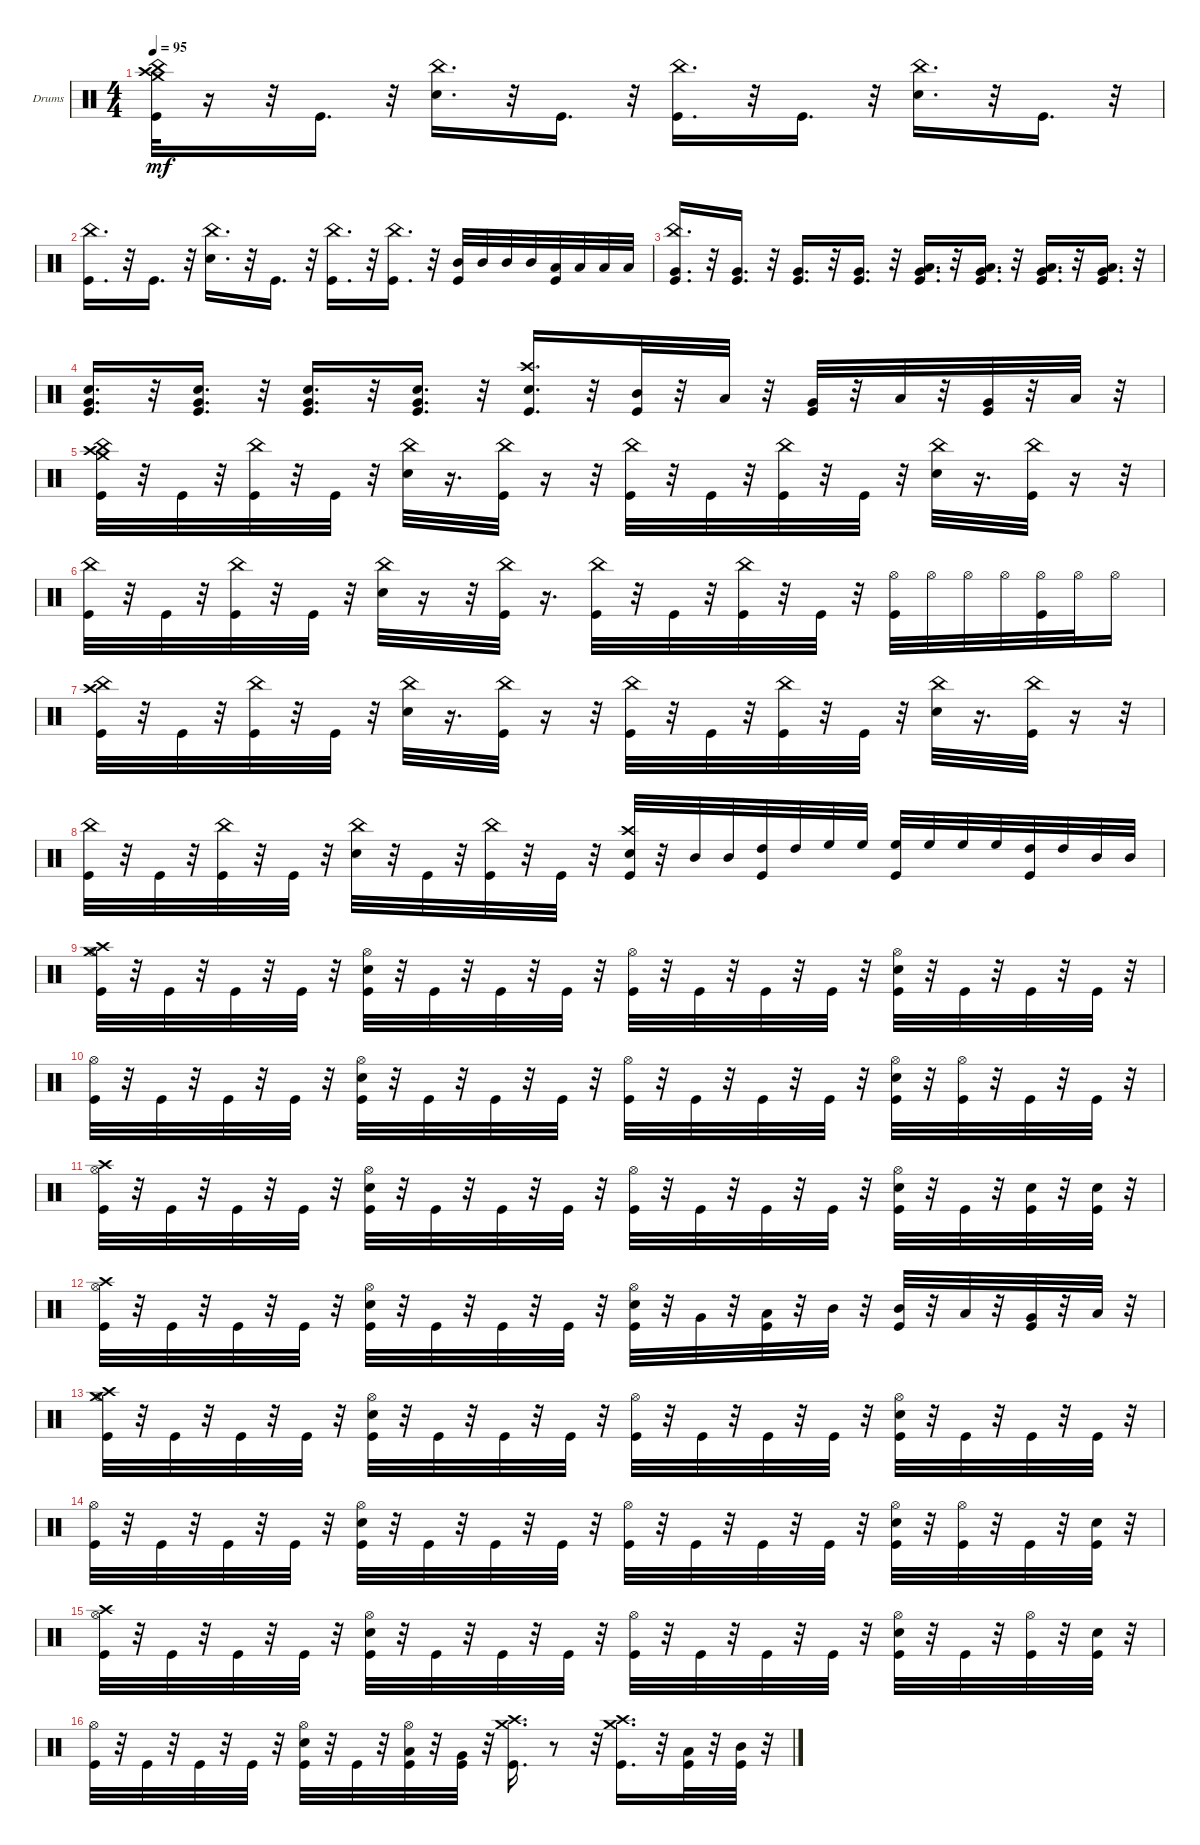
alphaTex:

\bracketExtendMode groupsimilarinstruments
\firstSystemTrackNameOrientation horizontal
\otherSystemsTrackNameOrientation horizontal
\track ("Drums" "Drums") {instrument percussion}
\staff {score}
\articulation defaults
\ts (4 4)
\tempo 95
\clef neutral
\ks c
("Kick (hit)" "Crash medium (hit)" "Crash high (hit)" "China (hit)").32{dy mf} r.16 r.32 "Kick (hit)".16{d} r.32 ("Snare (hit) 2" "China (hit)").16{d} r.32 "Kick (hit)".16{d} r.32 ("Kick (hit)" "China (hit)").16{d} r.32 "Kick (hit)".16{d} r.32 ("Snare (hit) 2" "China (hit)").16{d} r.32 "Kick (hit)".16{d} r.32 |
("Kick (hit)" "China (hit)").16{d} r.32 "Kick (hit)".16{d} r.32 ("Snare (hit) 2" "China (hit)").16{d} r.32 "Kick (hit)".16{d} r.32 ("Kick (hit)" "China (hit)").16{d} r.32 ("Kick (hit)" "China (hit)").16{d} r.32 ("Kick (hit)" "Mid Tom (hit)").32 "Mid Tom (hit)".32 "Mid Tom (hit)".32 "Mid Tom (hit)".32 ("Kick (hit)" "Low Tom (hit)").32 "Low Tom (hit)".32 "Low Tom (hit)".32 "Low Tom (hit)".32 |
("Kick (hit)" "China (hit)" "Very Low Tom (hit)").16{d} r.32 ("Kick (hit)" "Very Low Tom (hit)").16{d} r.32 ("Kick (hit)" "Very Low Tom (hit)").16{d} r.32 ("Kick (hit)" "Very Low Tom (hit)").16{d} r.32 ("Kick (hit)" "Low Tom (hit)" "Very Low Tom (hit)").16{d} r.32 ("Kick (hit)" "Low Tom (hit)" "Very Low Tom (hit)").16{d} r.32 ("Kick (hit)" "Low Tom (hit)" "Very Low Tom (hit)").16{d} r.32 ("Kick (hit)" "Low Tom (hit)" "Very Low Tom (hit)").16{d} r.32 |
("Kick (hit)" "Snare (hit) 2" "Very Low Tom (hit)").16{d} r.32 ("Kick (hit)" "Snare (hit) 2" "Very Low Tom (hit)").16{d} r.32 ("Kick (hit)" "Snare (hit) 2" "Very Low Tom (hit)").16{d} r.32 ("Kick (hit)" "Snare (hit) 2" "Very Low Tom (hit)").16{d} r.32 ("Kick (hit)" "Snare (hit) 2" "Crash high (hit)").16{d} r.32 ("Kick (hit)" "Mid Tom (hit)").32 r.32 "Low Tom (hit)".32 r.32 ("Kick (hit)" "Very Low Tom (hit)").32 r.32 "Low Tom (hit)".32 r.32 ("Kick (hit)" "Very Low Tom (hit)").32 r.32 "Low Tom (hit)".32 r.32 |
("Crash medium (hit)" "China (hit)" "Crash high (hit)" "Kick (hit)").32 r.32 "Kick (hit)".32 r.32 ("Kick (hit)" "China (hit)").32 r.32 "Kick (hit)".32 r.32 ("China (hit)" "Snare (hit) 2").32 r.16{d} ("Kick (hit)" "China (hit)").32 r.16 r.32 ("Kick (hit)" "China (hit)").32 r.32 "Kick (hit)".32 r.32 ("Kick (hit)" "China (hit)").32 r.32 "Kick (hit)".32 r.32 ("China (hit)" "Snare (hit) 2").32 r.16{d} ("Kick (hit)" "China (hit)").32 r.16 r.32 |
("Kick (hit)" "China (hit)").32 r.32 "Kick (hit)".32 r.32 ("Kick (hit)" "China (hit)").32 r.32 "Kick (hit)".32 r.32 ("Snare (hit) 2" "China (hit)").32 r.16 r.32 ("Kick (hit)" "China (hit)").32 r.16{d} ("Kick (hit)" "China (hit)").32 r.32 "Kick (hit)".32 r.32 ("Kick (hit)" "China (hit)").32 r.32 "Kick (hit)".32 r.32 ("Kick (hit)" "Hi-Hat (open)").32 "Hi-Hat (open)".32 "Hi-Hat (open)".32 "Hi-Hat (open)".32 ("Kick (hit)" "Hi-Hat (open)").32 "Hi-Hat (open)".32 "Hi-Hat (open)".16 |
("Kick (hit)" "Crash high (hit)" "China (hit)").32 r.32 "Kick (hit)".32 r.32 ("Kick (hit)" "China (hit)").32 r.32 "Kick (hit)".32 r.32 ("China (hit)" "Snare (hit) 2").32 r.16{d} ("Kick (hit)" "China (hit)").32 r.16 r.32 ("Kick (hit)" "China (hit)").32 r.32 "Kick (hit)".32 r.32 ("Kick (hit)" "China (hit)").32 r.32 "Kick (hit)".32 r.32 ("China (hit)" "Snare (hit) 2").32 r.16{d} ("Kick (hit)" "China (hit)").32 r.16 r.32 |
("Kick (hit)" "China (hit)").32 r.32 "Kick (hit)".32 r.32 ("Kick (hit)" "China (hit)").32 r.32 "Kick (hit)".32 r.32 ("Snare (hit) 2" "China (hit)").32 r.32 "Kick (hit)".32 r.32 ("Kick (hit)" "China (hit)").32 r.32 "Kick (hit)".32 r.32 ("Kick (hit)" "Snare (hit) 2" "Crash high (hit)").32 r.32 "Mid Tom (hit)".32 "Mid Tom (hit)".32 ("Kick (hit)" "High Tom (hit)").32 "High Tom (hit)".32 "High Floor Tom (hit)".32 "High Floor Tom (hit)".32 ("Kick (hit)" "High Floor Tom (hit)").32 "High Floor Tom (hit)".32 "High Floor Tom (hit)".32 "High Floor Tom (hit)".32 ("Kick (hit)" "High Tom (hit)").32 "High Tom (hit)".32 "Mid Tom (hit)".32 "Mid Tom (hit)".32 |
("Kick (hit)" "Hi-Hat (open)" "Crash medium (hit)" "Crash high (hit)").32 r.32 "Kick (hit)".32 r.32 "Kick (hit)".32 r.32 "Kick (hit)".32 r.32 ("Kick (hit)" "Snare (hit) 2" "Hi-Hat (open)").32 r.32 "Kick (hit)".32 r.32 "Kick (hit)".32 r.32 "Kick (hit)".32 r.32 ("Kick (hit)" "Hi-Hat (open)").32 r.32 "Kick (hit)".32 r.32 "Kick (hit)".32 r.32 "Kick (hit)".32 r.32 ("Kick (hit)" "Snare (hit) 2" "Hi-Hat (open)").32 r.32 "Kick (hit)".32 r.32 "Kick (hit)".32 r.32 "Kick (hit)".32 r.32 |
("Kick (hit)" "Hi-Hat (open)").32 r.32 "Kick (hit)".32 r.32 "Kick (hit)".32 r.32 "Kick (hit)".32 r.32 ("Kick (hit)" "Snare (hit) 2" "Hi-Hat (open)").32 r.32 "Kick (hit)".32 r.32 "Kick (hit)".32 r.32 "Kick (hit)".32 r.32 ("Kick (hit)" "Hi-Hat (open)").32 r.32 "Kick (hit)".32 r.32 "Kick (hit)".32 r.32 "Kick (hit)".32 r.32 ("Kick (hit)" "Snare (hit) 2" "Hi-Hat (open)").32 r.32 ("Kick (hit)" "Hi-Hat (open)").32 r.32 "Kick (hit)".32 r.32 "Kick (hit)".32 r.32 |
("Kick (hit)" "Hi-Hat (open)" "Crash high (hit)").32 r.32 "Kick (hit)".32 r.32 "Kick (hit)".32 r.32 "Kick (hit)".32 r.32 ("Kick (hit)" "Snare (hit) 2" "Hi-Hat (open)").32 r.32 "Kick (hit)".32 r.32 "Kick (hit)".32 r.32 "Kick (hit)".32 r.32 ("Kick (hit)" "Hi-Hat (open)").32 r.32 "Kick (hit)".32 r.32 "Kick (hit)".32 r.32 "Kick (hit)".32 r.32 ("Kick (hit)" "Snare (hit) 2" "Hi-Hat (open)").32 r.32 "Kick (hit)".32 r.32 ("Kick (hit)" "Snare (hit) 2").32 r.32 ("Kick (hit)" "Snare (hit) 2").32 r.32 |
("Kick (hit)" "Hi-Hat (open)" "Crash high (hit)").32 r.32 "Kick (hit)".32 r.32 "Kick (hit)".32 r.32 "Kick (hit)".32 r.32 ("Kick (hit)" "Snare (hit) 2" "Hi-Hat (open)").32 r.32 "Kick (hit)".32 r.32 "Kick (hit)".32 r.32 "Kick (hit)".32 r.32 ("Kick (hit)" "Snare (hit) 2" "Hi-Hat (open)").32 r.32 "Very Low Tom (hit)".32 r.32 ("Kick (hit)" "Low Tom (hit)").32 r.32 "Mid Tom (hit)".32 r.32 ("Kick (hit)" "Mid Tom (hit)").32 r.32 "Low Tom (hit)".32 r.32 ("Kick (hit)" "Very Low Tom (hit)").32 r.32 "Low Tom (hit)".32 r.32 |
("Crash medium (hit)" "Crash high (hit)" "Hi-Hat (open)" "Kick (hit)").32 r.32 "Kick (hit)".32 r.32 "Kick (hit)".32 r.32 "Kick (hit)".32 r.32 ("Kick (hit)" "Snare (hit) 2" "Hi-Hat (open)").32 r.32 "Kick (hit)".32 r.32 "Kick (hit)".32 r.32 "Kick (hit)".32 r.32 ("Kick (hit)" "Hi-Hat (open)").32 r.32 "Kick (hit)".32 r.32 "Kick (hit)".32 r.32 "Kick (hit)".32 r.32 ("Kick (hit)" "Snare (hit) 2" "Hi-Hat (open)").32 r.32 "Kick (hit)".32 r.32 "Kick (hit)".32 r.32 "Kick (hit)".32 r.32 |
("Kick (hit)" "Hi-Hat (open)").32 r.32 "Kick (hit)".32 r.32 "Kick (hit)".32 r.32 "Kick (hit)".32 r.32 ("Kick (hit)" "Snare (hit) 2" "Hi-Hat (open)").32 r.32 "Kick (hit)".32 r.32 "Kick (hit)".32 r.32 "Kick (hit)".32 r.32 ("Kick (hit)" "Hi-Hat (open)").32 r.32 "Kick (hit)".32 r.32 "Kick (hit)".32 r.32 "Kick (hit)".32 r.32 ("Kick (hit)" "Snare (hit) 2" "Hi-Hat (open)").32 r.32 ("Kick (hit)" "Hi-Hat (open)").32 r.32 "Kick (hit)".32 r.32 ("Kick (hit)" "Snare (hit) 2").32 r.32 |
("Kick (hit)" "Hi-Hat (open)" "Crash high (hit)").32 r.32 "Kick (hit)".32 r.32 "Kick (hit)".32 r.32 "Kick (hit)".32 r.32 ("Kick (hit)" "Snare (hit) 2" "Hi-Hat (open)").32 r.32 "Kick (hit)".32 r.32 "Kick (hit)".32 r.32 "Kick (hit)".32 r.32 ("Kick (hit)" "Hi-Hat (open)").32 r.32 "Kick (hit)".32 r.32 "Kick (hit)".32 r.32 "Kick (hit)".32 r.32 ("Kick (hit)" "Snare (hit) 2" "Hi-Hat (open)").32 r.32 "Kick (hit)".32 r.32 ("Kick (hit)" "Hi-Hat (open)").32 r.32 ("Kick (hit)" "Snare (hit) 2").32 r.32 |
("Kick (hit)" "Hi-Hat (open)").32 r.32 "Kick (hit)".32 r.32 "Kick (hit)".32 r.32 "Kick (hit)".32 r.32 ("Kick (hit)" "Snare (hit) 2" "Hi-Hat (open)").32 r.32 "Kick (hit)".32 r.32 ("Kick (hit)" "Hi-Hat (open)" "Low Tom (hit)").32 r.32 ("Kick (hit)" "Very Low Tom (hit)").32 r.32 ("Crash medium (hit)" "Crash high (hit)" "Kick (hit)").16{d} r.8 r.32 ("Kick (hit)" "Crash medium (hit)" "Crash high (hit)").16{d} r.32 ("Kick (hit)" "Low Tom (hit)").32 r.32 ("Kick (hit)" "Mid Tom (hit)").32 r.32
